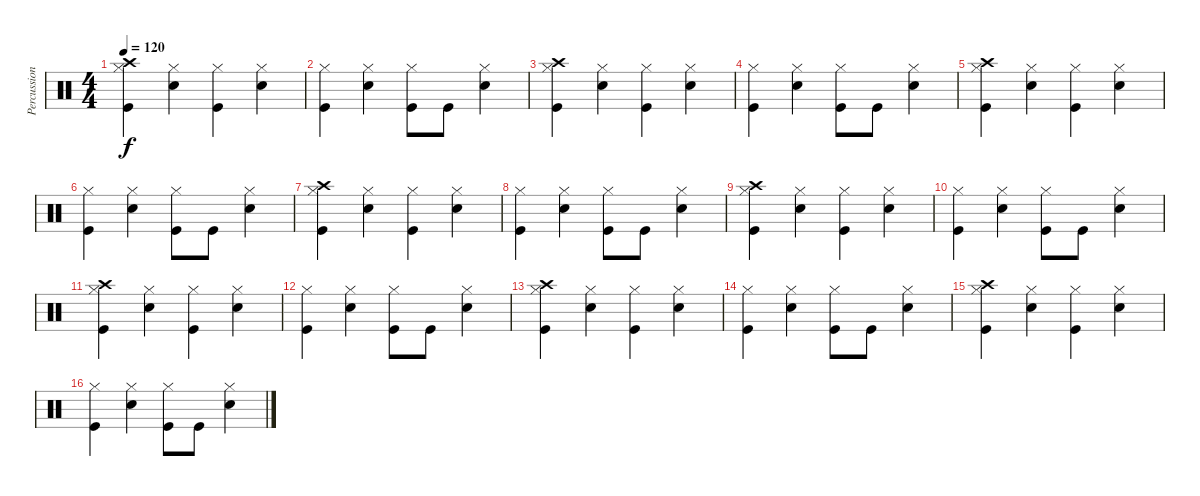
\track ("Percussion" "Percussion") {instrument percussion}
\staff {score}
\articulation defaults
\ts (4 4)
\tempo 120
\clef neutral
\ks c
("Kick (hit)" "Hi-Hat (closed)" "Crash high (hit)").4{dy f} ("Snare (hit) 2" "Hi-Hat (closed)").4 ("Kick (hit)" "Hi-Hat (closed)").4 ("Snare (hit) 2" "Hi-Hat (closed)").4 |
("Kick (hit)" "Hi-Hat (closed)").4 ("Snare (hit) 2" "Hi-Hat (closed)").4 ("Kick (hit)" "Hi-Hat (closed)").8 "Kick (hit)".8 ("Hi-Hat (closed)" "Snare (hit) 2").4 |
("Kick (hit)" "Hi-Hat (closed)" "Crash high (hit)").4 ("Snare (hit) 2" "Hi-Hat (closed)").4 ("Kick (hit)" "Hi-Hat (closed)").4 ("Snare (hit) 2" "Hi-Hat (closed)").4 |
("Kick (hit)" "Hi-Hat (closed)").4 ("Snare (hit) 2" "Hi-Hat (closed)").4 ("Kick (hit)" "Hi-Hat (closed)").8 "Kick (hit)".8 ("Hi-Hat (closed)" "Snare (hit) 2").4 |
("Kick (hit)" "Hi-Hat (closed)" "Crash high (hit)").4 ("Snare (hit) 2" "Hi-Hat (closed)").4 ("Kick (hit)" "Hi-Hat (closed)").4 ("Snare (hit) 2" "Hi-Hat (closed)").4 |
("Kick (hit)" "Hi-Hat (closed)").4 ("Snare (hit) 2" "Hi-Hat (closed)").4 ("Kick (hit)" "Hi-Hat (closed)").8 "Kick (hit)".8 ("Hi-Hat (closed)" "Snare (hit) 2").4 |
("Kick (hit)" "Hi-Hat (closed)" "Crash high (hit)").4 ("Snare (hit) 2" "Hi-Hat (closed)").4 ("Kick (hit)" "Hi-Hat (closed)").4 ("Snare (hit) 2" "Hi-Hat (closed)").4 |
("Kick (hit)" "Hi-Hat (closed)").4 ("Snare (hit) 2" "Hi-Hat (closed)").4 ("Kick (hit)" "Hi-Hat (closed)").8 "Kick (hit)".8 ("Hi-Hat (closed)" "Snare (hit) 2").4 |
("Kick (hit)" "Hi-Hat (closed)" "Crash high (hit)").4 ("Snare (hit) 2" "Hi-Hat (closed)").4 ("Kick (hit)" "Hi-Hat (closed)").4 ("Snare (hit) 2" "Hi-Hat (closed)").4 |
("Kick (hit)" "Hi-Hat (closed)").4 ("Snare (hit) 2" "Hi-Hat (closed)").4 ("Kick (hit)" "Hi-Hat (closed)").8 "Kick (hit)".8 ("Hi-Hat (closed)" "Snare (hit) 2").4 |
("Kick (hit)" "Hi-Hat (closed)" "Crash high (hit)").4 ("Snare (hit) 2" "Hi-Hat (closed)").4 ("Kick (hit)" "Hi-Hat (closed)").4 ("Snare (hit) 2" "Hi-Hat (closed)").4 |
("Kick (hit)" "Hi-Hat (closed)").4 ("Snare (hit) 2" "Hi-Hat (closed)").4 ("Kick (hit)" "Hi-Hat (closed)").8 "Kick (hit)".8 ("Hi-Hat (closed)" "Snare (hit) 2").4 |
("Kick (hit)" "Hi-Hat (closed)" "Crash high (hit)").4 ("Snare (hit) 2" "Hi-Hat (closed)").4 ("Kick (hit)" "Hi-Hat (closed)").4 ("Snare (hit) 2" "Hi-Hat (closed)").4 |
("Kick (hit)" "Hi-Hat (closed)").4 ("Snare (hit) 2" "Hi-Hat (closed)").4 ("Kick (hit)" "Hi-Hat (closed)").8 "Kick (hit)".8 ("Hi-Hat (closed)" "Snare (hit) 2").4 |
("Kick (hit)" "Hi-Hat (closed)" "Crash high (hit)").4 ("Snare (hit) 2" "Hi-Hat (closed)").4 ("Kick (hit)" "Hi-Hat (closed)").4 ("Snare (hit) 2" "Hi-Hat (closed)").4 |
("Kick (hit)" "Hi-Hat (closed)").4 ("Snare (hit) 2" "Hi-Hat (closed)").4 ("Kick (hit)" "Hi-Hat (closed)").8 "Kick (hit)".8 ("Hi-Hat (closed)" "Snare (hit) 2").4
